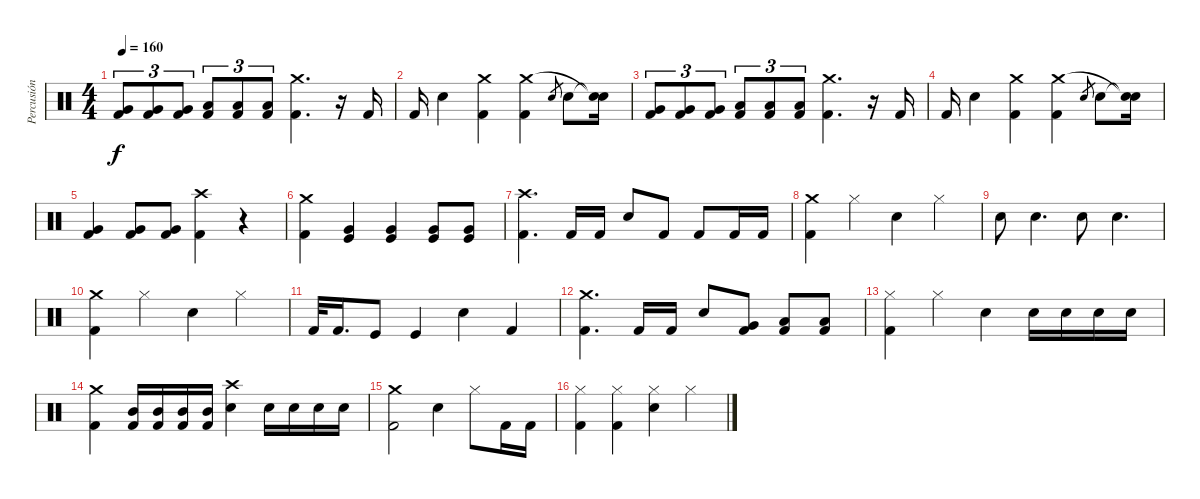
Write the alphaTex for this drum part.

\track ("Percusión" "Percusión") {instrument percussion}
\staff {score}
\articulation defaults
\ts (4 4)
\tempo 160
\clef neutral
\ks c
("Kick (hit) 2" "Very Low Tom (hit)").8{tu (3 2) dy f} ("Kick (hit) 2" "Very Low Tom (hit)").8{tu (3 2)} ("Kick (hit) 2" "Very Low Tom (hit)").8{tu (3 2)} ("Kick (hit) 2" "Low Floor Tom (hit)").8{tu (3 2)} ("Kick (hit) 2" "Low Floor Tom (hit)").8{tu (3 2)} ("Kick (hit) 2" "Low Floor Tom (hit)").8{tu (3 2)} ("Kick (hit) 2" "Crash medium (hit)").4{d} r.16 "Kick (hit) 2".16 |
"Kick (hit) 2".16 "Snare (hit) 2".4 ("Kick (hit) 2" "Crash medium (hit)").4 ("Kick (hit) 2" "Crash medium (hit)").4 "Snare (hit) 2".8{gr} "Snare (hit) 2".8 ("Snare (hit) 2"{t} "Snare (hit)"{t}).16 |
("Kick (hit) 2" "Very Low Tom (hit)").8{tu (3 2)} ("Kick (hit) 2" "Very Low Tom (hit)").8{tu (3 2)} ("Kick (hit) 2" "Very Low Tom (hit)").8{tu (3 2)} ("Kick (hit) 2" "Low Floor Tom (hit)").8{tu (3 2)} ("Kick (hit) 2" "Low Floor Tom (hit)").8{tu (3 2)} ("Kick (hit) 2" "Low Floor Tom (hit)").8{tu (3 2)} ("Kick (hit) 2" "Crash medium (hit)").4{d} r.16 "Kick (hit) 2".16 |
"Kick (hit) 2".16 "Snare (hit) 2".4 ("Kick (hit) 2" "Crash medium (hit)").4 ("Kick (hit) 2" "Crash medium (hit)").4 "Snare (hit) 2".8{gr} "Snare (hit) 2".8 ("Snare (hit) 2"{t} "Snare (hit)"{t}).16 |
("Kick (hit) 2" "Very Low Tom (hit)").4 ("Kick (hit) 2" "Very Low Tom (hit)").8 ("Kick (hit) 2" "Very Low Tom (hit)").8 ("Kick (hit) 2" "Crash high (hit)").4 r.4 |
("Crash medium (hit)" "Kick (hit) 2").4 ("Very Low Tom (hit)" "Kick (hit)").4 ("Very Low Tom (hit)" "Kick (hit)").4 ("Very Low Tom (hit)" "Kick (hit)").8 ("Very Low Tom (hit)" "Kick (hit)").8 |
("Kick (hit) 2" "Crash high (hit)").4{d} "Kick (hit) 2".16 "Kick (hit) 2".16 "Snare (hit) 2".8 "Kick (hit) 2".8 "Kick (hit) 2".8 "Kick (hit) 2".16 "Kick (hit) 2".16 |
("Kick (hit) 2" "Crash medium (hit)").4 "Hi-Hat (closed)".4 "Snare (hit) 2".4 "Hi-Hat (closed)".4 |
"Snare (hit) 2".8 "Snare (hit) 2".4{d} "Snare (hit) 2".8 "Snare (hit) 2".4{d} |
("Kick (hit) 2" "Crash medium (hit)").4 "Hi-Hat (closed)".4 "Snare (hit) 2".4 "Hi-Hat (closed)".4 |
"Kick (hit) 2".32 "Kick (hit) 2".16{d} "Kick (hit)".8 "Kick (hit)".4 "Snare (hit) 2".4 "Kick (hit) 2".4 |
("Kick (hit) 2" "Crash medium (hit)").4{d} "Kick (hit) 2".16 "Kick (hit) 2".16 "Snare (hit) 2".8 ("Kick (hit) 2" "Very Low Tom (hit)").8 ("Kick (hit) 2" "Low Floor Tom (hit)").8 ("Kick (hit) 2" "Low Floor Tom (hit)").8 |
("Kick (hit) 2" "Hi-Hat (closed)").4 "Hi-Hat (closed)".4 "Snare (hit) 2".4 "Snare (hit) 2".16 "Snare (hit) 2".16 "Snare (hit) 2".16 "Snare (hit) 2".16 |
("Kick (hit) 2" "Crash medium (hit)").4 ("Mid Tom (hit)" "Kick (hit) 2").16 ("Mid Tom (hit)" "Kick (hit) 2").16 ("Mid Tom (hit)" "Kick (hit) 2").16 ("Mid Tom (hit)" "Kick (hit) 2").16 ("Snare (hit) 2" "Crash high (hit)").4 "Snare (hit) 2".16 "Snare (hit) 2".16 "Snare (hit) 2".16 "Snare (hit) 2".16 |
("Kick (hit) 2" "Crash medium (hit)").2 "Snare (hit) 2".4 "Hi-Hat (closed)".8 "Kick (hit) 2".16 "Kick (hit) 2".16 |
("Kick (hit) 2" "Hi-Hat (closed)").4 ("Kick (hit) 2" "Hi-Hat (closed)").4 ("Snare (hit) 2" "Hi-Hat (closed)").4 "Hi-Hat (closed)".4
